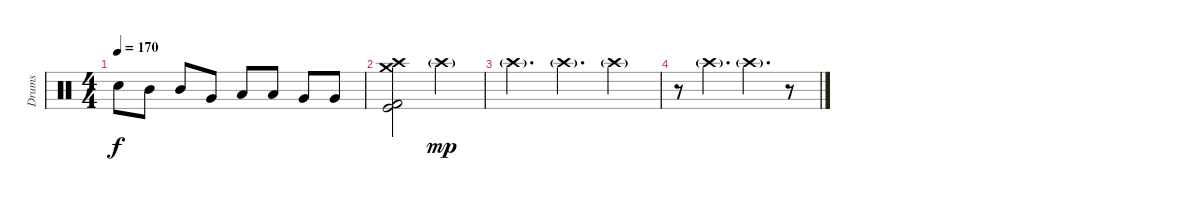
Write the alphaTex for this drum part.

\track ("Drums" "Drums") {instrument percussion}
\staff {score}
\articulation defaults
\ts (4 4)
\tempo 170
\clef neutral
\ks c "Electric Snare (hit)".8{dy f} "Mid Tom (hit)".8 "Mid Tom (hit)".8 "Very Low Tom (hit)".8 "Low Tom (hit)".8 "Low Tom (hit)".8 "Very Low Tom (hit)".8 "Very Low Tom (hit)".8
|
("Crash high (hit)" "Crash medium (hit)" "Kick (hit)" "Kick (hit) 2").2 "Crash high (hit)"{g}.2{dy mp} |
"Crash high (hit)"{g}.4{d} "Crash high (hit)"{g}.4{d} "Crash high (hit)"{g}.4 |
r.8 "Crash high (hit)"{g}.4{d} "Crash high (hit)"{g}.4{d} r.8
